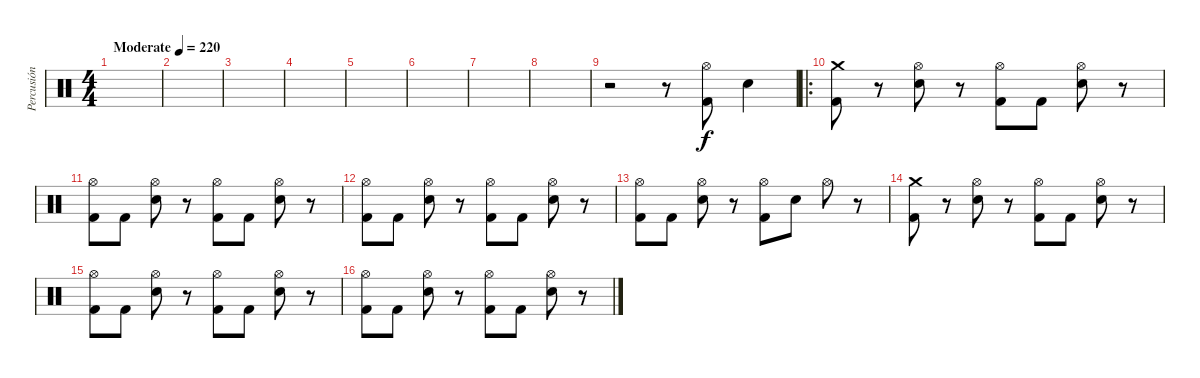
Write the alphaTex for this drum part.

\track ("Percusión" "Percusión") {instrument percussion}
\staff {score}
\articulation defaults
\ts (4 4)
\tempo (220 "Moderate")
\clef neutral
\ks c
|
|
|
|
|
|
|
|
r.2 r.8 ("Hi-Hat (open)" "Kick (hit) 2").8 "Electric Snare (hit)".4 |
\ro
("Crash medium (hit)" "Kick (hit) 2").8 r.8 ("Hi-Hat (open)" "Electric Snare (hit)").8 r.8 ("Hi-Hat (open)" "Kick (hit) 2").8 "Kick (hit) 2".8 ("Hi-Hat (open)" "Electric Snare (hit)").8 r.8 |
("Hi-Hat (open)" "Kick (hit) 2").8 "Kick (hit) 2".8 ("Hi-Hat (open)" "Electric Snare (hit)").8 r.8 ("Hi-Hat (open)" "Kick (hit) 2").8 "Kick (hit) 2".8 ("Hi-Hat (open)" "Electric Snare (hit)").8 r.8 |
("Hi-Hat (open)" "Kick (hit) 2").8 "Kick (hit) 2".8 ("Hi-Hat (open)" "Electric Snare (hit)").8 r.8 ("Hi-Hat (open)" "Kick (hit) 2").8 "Kick (hit) 2".8 ("Hi-Hat (open)" "Electric Snare (hit)").8 r.8 |
("Hi-Hat (open)" "Kick (hit) 2").8 "Kick (hit) 2".8 ("Hi-Hat (open)" "Electric Snare (hit)").8 r.8 ("Hi-Hat (open)" "Kick (hit) 2").8 "Electric Snare (hit)".8 "Hi-Hat (open)".8 r.8 |
("Crash medium (hit)" "Kick (hit) 2").8 r.8 ("Hi-Hat (open)" "Electric Snare (hit)").8 r.8 ("Hi-Hat (open)" "Kick (hit) 2").8 "Kick (hit) 2".8 ("Hi-Hat (open)" "Electric Snare (hit)").8 r.8 |
("Hi-Hat (open)" "Kick (hit) 2").8 "Kick (hit) 2".8 ("Hi-Hat (open)" "Electric Snare (hit)").8 r.8 ("Hi-Hat (open)" "Kick (hit) 2").8 "Kick (hit) 2".8 ("Hi-Hat (open)" "Electric Snare (hit)").8 r.8 |
("Hi-Hat (open)" "Kick (hit) 2").8 "Kick (hit) 2".8 ("Hi-Hat (open)" "Electric Snare (hit)").8 r.8 ("Hi-Hat (open)" "Kick (hit) 2").8 "Kick (hit) 2".8 ("Hi-Hat (open)" "Electric Snare (hit)").8 r.8
